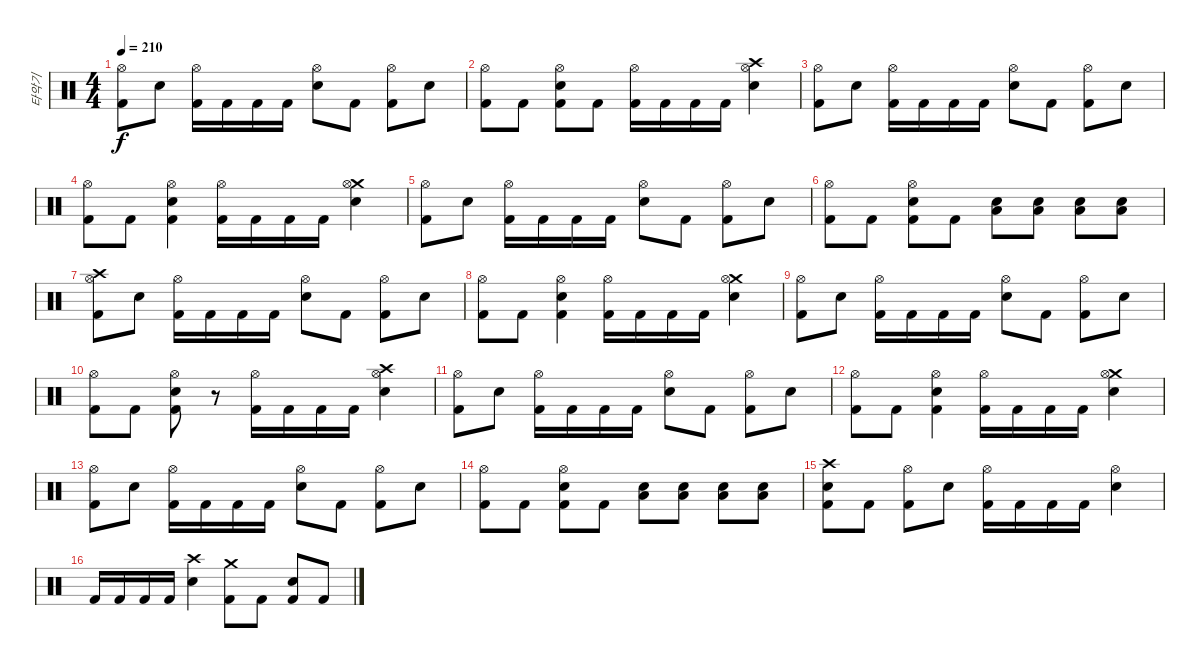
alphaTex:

\track ("타악기" "타악기") {instrument percussion}
\staff {score}
\articulation defaults
\ts (4 4)
\tempo 210
\clef neutral
\ks c
("Hi-Hat (open)" "Kick (hit) 2").8{dy f} "Snare (hit) 2".8 ("Hi-Hat (open)" "Kick (hit) 2").16 "Kick (hit) 2".16 "Kick (hit) 2".16 "Kick (hit) 2".16 ("Hi-Hat (open)" "Snare (hit) 2").8 "Kick (hit) 2".8 ("Hi-Hat (open)" "Kick (hit) 2").8 "Snare (hit) 2".8 |
("Hi-Hat (open)" "Kick (hit) 2").8 "Kick (hit) 2".8 ("Hi-Hat (open)" "Snare (hit) 2" "Kick (hit) 2").8 "Kick (hit) 2".8 ("Hi-Hat (open)" "Kick (hit) 2").16 "Kick (hit) 2".16 "Kick (hit) 2".16 "Kick (hit) 2".16 ("Crash high (hit)" "Hi-Hat (open)" "Snare (hit) 2").4 |
("Hi-Hat (open)" "Kick (hit) 2").8 "Snare (hit) 2".8 ("Hi-Hat (open)" "Kick (hit) 2").16 "Kick (hit) 2".16 "Kick (hit) 2".16 "Kick (hit) 2".16 ("Hi-Hat (open)" "Snare (hit) 2").8 "Kick (hit) 2".8 ("Hi-Hat (open)" "Kick (hit) 2").8 "Snare (hit) 2".8 |
("Hi-Hat (open)" "Kick (hit) 2").8 "Kick (hit) 2".8 ("Hi-Hat (open)" "Snare (hit) 2" "Kick (hit) 2").4 ("Hi-Hat (open)" "Kick (hit) 2").16 "Kick (hit) 2".16 "Kick (hit) 2".16 "Kick (hit) 2".16 ("Crash medium (hit)" "Hi-Hat (open)" "Snare (hit) 2").4 |
("Hi-Hat (open)" "Kick (hit) 2").8 "Snare (hit) 2".8 ("Hi-Hat (open)" "Kick (hit) 2").16 "Kick (hit) 2".16 "Kick (hit) 2".16 "Kick (hit) 2".16 ("Hi-Hat (open)" "Snare (hit) 2").8 "Kick (hit) 2".8 ("Hi-Hat (open)" "Kick (hit) 2").8 "Snare (hit) 2".8 |
("Hi-Hat (open)" "Kick (hit) 2").8 "Kick (hit) 2".8 ("Hi-Hat (open)" "Snare (hit) 2" "Kick (hit) 2").8 "Kick (hit) 2".8 ("Low Tom (hit)" "Snare (hit) 2").8 ("Low Tom (hit)" "Snare (hit) 2").8 ("Low Tom (hit)" "Snare (hit) 2").8 ("Low Tom (hit)" "Snare (hit) 2").8 |
("Crash high (hit)" "Hi-Hat (open)" "Kick (hit) 2").8 "Snare (hit) 2".8 ("Hi-Hat (open)" "Kick (hit) 2").16 "Kick (hit) 2".16 "Kick (hit) 2".16 "Kick (hit) 2".16 ("Hi-Hat (open)" "Snare (hit) 2").8 "Kick (hit) 2".8 ("Hi-Hat (open)" "Kick (hit) 2").8 "Snare (hit) 2".8 |
("Hi-Hat (open)" "Kick (hit) 2").8 "Kick (hit) 2".8 ("Hi-Hat (open)" "Snare (hit) 2" "Kick (hit) 2").4 ("Hi-Hat (open)" "Kick (hit) 2").16 "Kick (hit) 2".16 "Kick (hit) 2".16 "Kick (hit) 2".16 ("Crash medium (hit)" "Hi-Hat (open)" "Snare (hit) 2").4 |
("Hi-Hat (open)" "Kick (hit) 2").8 "Snare (hit) 2".8 ("Hi-Hat (open)" "Kick (hit) 2").16 "Kick (hit) 2".16 "Kick (hit) 2".16 "Kick (hit) 2".16 ("Hi-Hat (open)" "Snare (hit) 2").8 "Kick (hit) 2".8 ("Hi-Hat (open)" "Kick (hit) 2").8 "Snare (hit) 2".8 |
("Hi-Hat (open)" "Kick (hit) 2").8 "Kick (hit) 2".8 ("Hi-Hat (open)" "Snare (hit) 2" "Kick (hit) 2").8 r.8 ("Hi-Hat (open)" "Kick (hit) 2").16 "Kick (hit) 2".16 "Kick (hit) 2".16 "Kick (hit) 2".16 ("Crash high (hit)" "Hi-Hat (open)" "Snare (hit) 2").4 |
("Hi-Hat (open)" "Kick (hit) 2").8 "Snare (hit) 2".8 ("Hi-Hat (open)" "Kick (hit) 2").16 "Kick (hit) 2".16 "Kick (hit) 2".16 "Kick (hit) 2".16 ("Hi-Hat (open)" "Snare (hit) 2").8 "Kick (hit) 2".8 ("Hi-Hat (open)" "Kick (hit) 2").8 "Snare (hit) 2".8 |
("Hi-Hat (open)" "Kick (hit) 2").8 "Kick (hit) 2".8 ("Hi-Hat (open)" "Snare (hit) 2" "Kick (hit) 2").4 ("Hi-Hat (open)" "Kick (hit) 2").16 "Kick (hit) 2".16 "Kick (hit) 2".16 "Kick (hit) 2".16 ("Crash medium (hit)" "Hi-Hat (open)" "Snare (hit) 2").4 |
("Hi-Hat (open)" "Kick (hit) 2").8 "Snare (hit) 2".8 ("Hi-Hat (open)" "Kick (hit) 2").16 "Kick (hit) 2".16 "Kick (hit) 2".16 "Kick (hit) 2".16 ("Hi-Hat (open)" "Snare (hit) 2").8 "Kick (hit) 2".8 ("Hi-Hat (open)" "Kick (hit) 2").8 "Snare (hit) 2".8 |
("Hi-Hat (open)" "Kick (hit) 2").8 "Kick (hit) 2".8 ("Hi-Hat (open)" "Snare (hit) 2" "Kick (hit) 2").8 "Kick (hit) 2".8 ("Low Tom (hit)" "Snare (hit) 2").8 ("Low Tom (hit)" "Snare (hit) 2").8 ("Low Tom (hit)" "Snare (hit) 2").8 ("Low Tom (hit)" "Snare (hit) 2").8 |
("Crash high (hit)" "Snare (hit) 2" "Kick (hit) 2").8 "Kick (hit) 2".8 ("Hi-Hat (open)" "Kick (hit) 2").8 "Snare (hit) 2".8 ("Hi-Hat (open)" "Kick (hit) 2").16 "Kick (hit) 2".16 "Kick (hit) 2".16 "Kick (hit) 2".16 ("Hi-Hat (open)" "Snare (hit) 2").4 |
"Kick (hit) 2".16 "Kick (hit) 2".16 "Kick (hit) 2".16 "Kick (hit) 2".16 ("Crash high (hit)" "Snare (hit) 2").4 ("Crash medium (hit)" "Kick (hit) 2").8 "Kick (hit) 2".8 ("Snare (hit) 2" "Kick (hit) 2").8 "Kick (hit) 2".8
